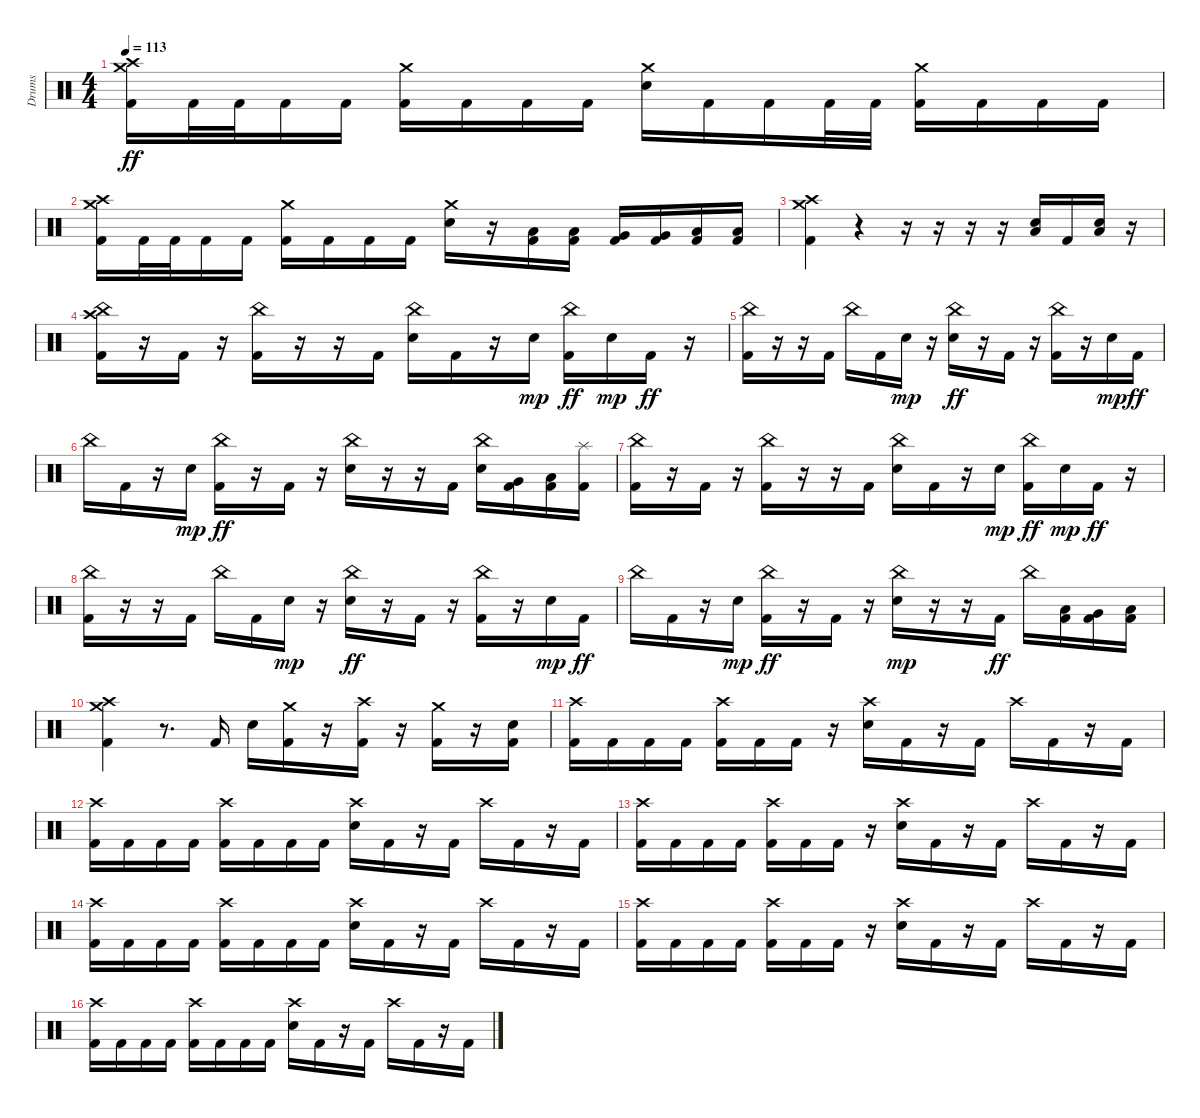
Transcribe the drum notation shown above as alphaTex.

\track ("Drums" "Drums") {instrument percussion}
\staff {score}
\articulation defaults
\ts (4 4)
\tempo 113
\clef neutral
\ks c
("Crash medium (hit)" "Crash high (hit)" "Kick (hit) 2").16{dy ff} "Kick (hit) 2".32 "Kick (hit) 2".32 "Kick (hit) 2".16 "Kick (hit) 2".16 ("Crash medium (hit)" "Kick (hit) 2").16 "Kick (hit) 2".16 "Kick (hit) 2".16 "Kick (hit) 2".16 ("Crash medium (hit)" "Snare (hit) 2").16 "Kick (hit) 2".16 "Kick (hit) 2".16 "Kick (hit) 2".32 "Kick (hit) 2".32 ("Crash medium (hit)" "Kick (hit) 2").16 "Kick (hit) 2".16 "Kick (hit) 2".16 "Kick (hit) 2".16 |
("Crash medium (hit)" "Crash high (hit)" "Kick (hit) 2").16 "Kick (hit) 2".32 "Kick (hit) 2".32 "Kick (hit) 2".16 "Kick (hit) 2".16 ("Crash medium (hit)" "Kick (hit) 2").16 "Kick (hit) 2".16 "Kick (hit) 2".16 "Kick (hit) 2".16 ("Crash medium (hit)" "Snare (hit) 2").16 r.16 ("Low Tom (hit)" "Kick (hit) 2").16 ("Low Tom (hit)" "Kick (hit) 2").16 ("Very Low Tom (hit)" "Kick (hit) 2").16 ("Very Low Tom (hit)" "Kick (hit) 2").16 ("Low Floor Tom (hit)" "Kick (hit) 2").16 ("Low Floor Tom (hit)" "Kick (hit) 2").16 |
("Crash high (hit)" "Crash medium (hit)" "Kick (hit) 2").4 r.4 r.16 r.16 r.16 r.16 ("Snare (hit) 2" "Low Floor Tom (hit)").16 "Kick (hit) 2".16 ("Snare (hit) 2" "Low Floor Tom (hit)").16 r.16 |
("Crash high (hit)" "China (hit)" "Kick (hit) 2").16 r.16 "Kick (hit) 2".16 r.16 ("China (hit)" "Kick (hit) 2").16 r.16 r.16 "Kick (hit) 2".16 ("China (hit)" "Snare (hit) 2").16 "Kick (hit) 2".16 r.16 "Snare (hit) 2".16{dy mp} ("China (hit)" "Kick (hit) 2").16{dy ff} "Snare (hit) 2".16{dy mp} "Kick (hit) 2".16{dy ff} r.16 |
("China (hit)" "Kick (hit) 2").16 r.16 r.16 "Kick (hit) 2".16 "China (hit)".16 "Kick (hit) 2".16 "Snare (hit) 2".16{dy mp} r.16 ("China (hit)" "Snare (hit) 2").16{dy ff} r.16 "Kick (hit) 2".16 r.16 ("China (hit)" "Kick (hit) 2").16 r.16 "Snare (hit) 2".16{dy mp} "Kick (hit) 2".16{dy ff} |
"China (hit)".16 "Kick (hit) 2".16 r.16 "Snare (hit) 2".16{dy mp} ("China (hit)" "Kick (hit) 2").16{dy ff} r.16 "Kick (hit) 2".16 r.16 ("China (hit)" "Snare (hit) 2").16 r.16 r.16 "Kick (hit) 2".16 ("China (hit)" "Snare (hit) 2").16 ("Very Low Tom (hit)" "Kick (hit) 2").16 ("Low Floor Tom (hit)" "Kick (hit) 2").16 ("Splash (hit)" "Kick (hit) 2").16 |
("China (hit)" "Kick (hit) 2").16 r.16 "Kick (hit) 2".16 r.16 ("China (hit)" "Kick (hit) 2").16 r.16 r.16 "Kick (hit) 2".16 ("China (hit)" "Snare (hit) 2").16 "Kick (hit) 2".16 r.16 "Snare (hit) 2".16{dy mp} ("China (hit)" "Kick (hit) 2").16{dy ff} "Snare (hit) 2".16{dy mp} "Kick (hit) 2".16{dy ff} r.16 |
("China (hit)" "Kick (hit) 2").16 r.16 r.16 "Kick (hit) 2".16 "China (hit)".16 "Kick (hit) 2".16 "Snare (hit) 2".16{dy mp} r.16 ("China (hit)" "Snare (hit) 2").16{dy ff} r.16 "Kick (hit) 2".16 r.16 ("China (hit)" "Kick (hit) 2").16 r.16 "Snare (hit) 2".16{dy mp} "Kick (hit) 2".16{dy ff} |
"China (hit)".16 "Kick (hit) 2".16 r.16 "Snare (hit) 2".16{dy mp} ("China (hit)" "Kick (hit) 2").16{dy ff} r.16 "Kick (hit) 2".16 r.16 ("China (hit)" "Snare (hit) 2").16{dy mp} r.16 r.16 "Kick (hit) 2".16{dy ff} "China (hit)".16 ("Low Tom (hit)" "Kick (hit) 2").16 ("Very Low Tom (hit)" "Kick (hit) 2").16 ("Low Floor Tom (hit)" "Kick (hit) 2").16 |
("Crash high (hit)" "Crash medium (hit)" "Kick (hit) 2").4 r.8{d} "Kick (hit) 2".16 "Snare (hit) 2".16 ("Crash medium (hit)" "Kick (hit) 2").16 r.16 ("Crash high (hit)" "Kick (hit) 2").16 r.16 ("Crash medium (hit)" "Kick (hit) 2").16 r.16 ("Snare (hit) 2" "Kick (hit) 2").16 |
("Crash high (hit)" "Kick (hit) 2").16 "Kick (hit) 2".16 "Kick (hit) 2".16 "Kick (hit) 2".16 ("Crash high (hit)" "Kick (hit) 2").16 "Kick (hit) 2".16 "Kick (hit) 2".16 r.16 ("Crash high (hit)" "Snare (hit) 2").16 "Kick (hit) 2".16 r.16 "Kick (hit) 2".16 "Crash high (hit)".16 "Kick (hit) 2".16 r.16 "Kick (hit) 2".16 |
("Crash high (hit)" "Kick (hit) 2").16 "Kick (hit) 2".16 "Kick (hit) 2".16 "Kick (hit) 2".16 ("Crash high (hit)" "Kick (hit) 2").16 "Kick (hit) 2".16 "Kick (hit) 2".16 "Kick (hit) 2".16 ("Crash high (hit)" "Snare (hit) 2").16 "Kick (hit) 2".16 r.16 "Kick (hit) 2".16 "Crash high (hit)".16 "Kick (hit) 2".16 r.16 "Kick (hit) 2".16 |
("Crash high (hit)" "Kick (hit) 2").16 "Kick (hit) 2".16 "Kick (hit) 2".16 "Kick (hit) 2".16 ("Crash high (hit)" "Kick (hit) 2").16 "Kick (hit) 2".16 "Kick (hit) 2".16 r.16 ("Crash high (hit)" "Snare (hit) 2").16 "Kick (hit) 2".16 r.16 "Kick (hit) 2".16 "Crash high (hit)".16 "Kick (hit) 2".16 r.16 "Kick (hit) 2".16 |
("Crash high (hit)" "Kick (hit) 2").16 "Kick (hit) 2".16 "Kick (hit) 2".16 "Kick (hit) 2".16 ("Crash high (hit)" "Kick (hit) 2").16 "Kick (hit) 2".16 "Kick (hit) 2".16 "Kick (hit) 2".16 ("Crash high (hit)" "Snare (hit) 2").16 "Kick (hit) 2".16 r.16 "Kick (hit) 2".16 "Crash high (hit)".16 "Kick (hit) 2".16 r.16 "Kick (hit) 2".16 |
("Crash high (hit)" "Kick (hit) 2").16 "Kick (hit) 2".16 "Kick (hit) 2".16 "Kick (hit) 2".16 ("Crash high (hit)" "Kick (hit) 2").16 "Kick (hit) 2".16 "Kick (hit) 2".16 r.16 ("Crash high (hit)" "Snare (hit) 2").16 "Kick (hit) 2".16 r.16 "Kick (hit) 2".16 "Crash high (hit)".16 "Kick (hit) 2".16 r.16 "Kick (hit) 2".16 |
("Crash high (hit)" "Kick (hit) 2").16 "Kick (hit) 2".16 "Kick (hit) 2".16 "Kick (hit) 2".16 ("Crash high (hit)" "Kick (hit) 2").16 "Kick (hit) 2".16 "Kick (hit) 2".16 "Kick (hit) 2".16 ("Crash high (hit)" "Snare (hit) 2").16 "Kick (hit) 2".16 r.16 "Kick (hit) 2".16 "Crash high (hit)".16 "Kick (hit) 2".16 r.16 "Kick (hit) 2".16
